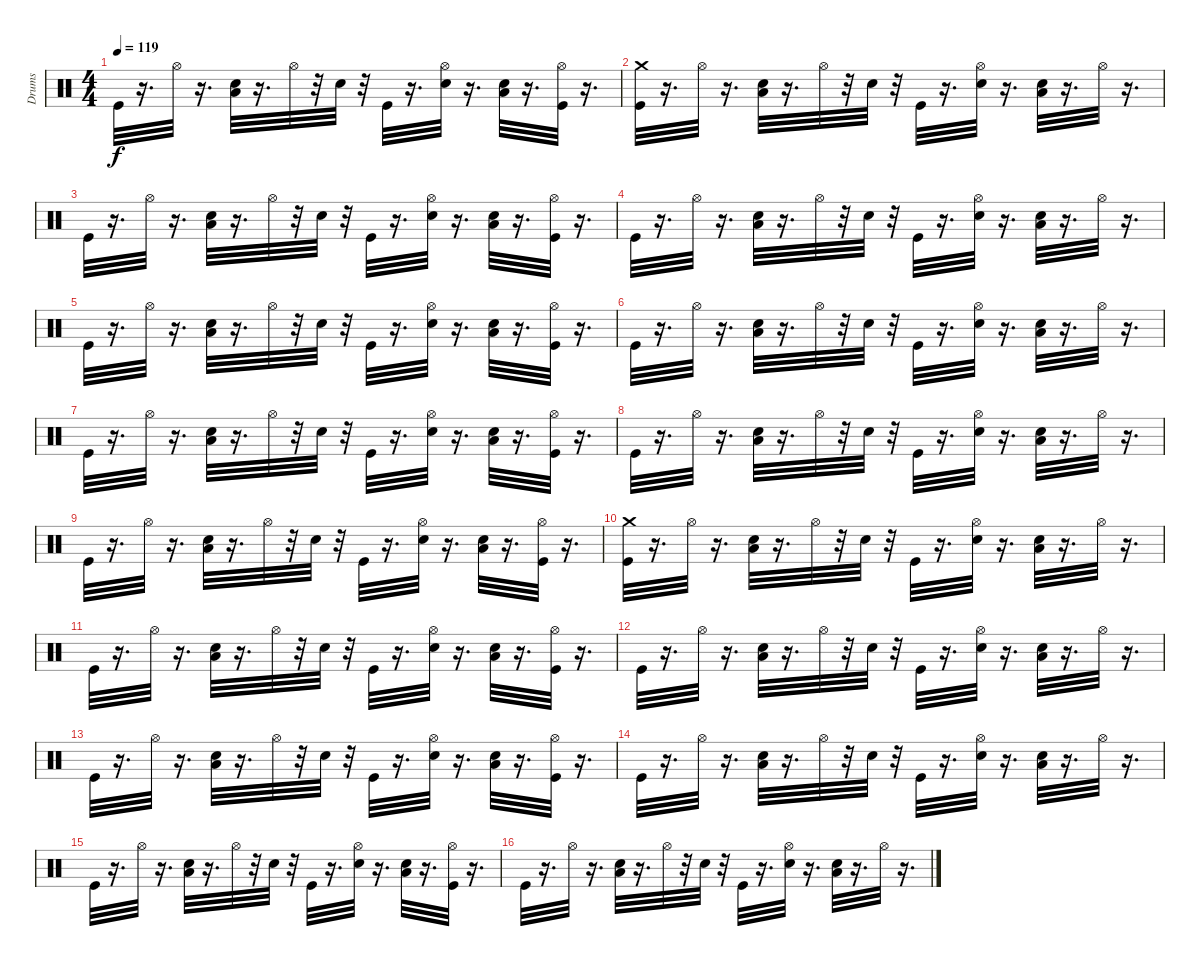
\track ("Drums" "Drums") {instrument percussion}
\staff {score}
\articulation defaults
\ts (4 4)
\tempo 119
\clef neutral
\ks c "Kick (hit)".32{dy f}
r.16{d} "Hi-Hat (open)".32 r.16{d} ("Low Floor Tom (hit)" "Hand Clap (hit)").32 r.16{d} "Hi-Hat (open)".32 r.32 "Hand Clap (hit)".32 r.32 "Kick (hit)".32 r.16{d} ("Hi-Hat (open)" "Hand Clap (hit)").32 r.16{d} ("Low Floor Tom (hit)" "Hand Clap (hit)").32 r.16{d} ("Kick (hit)" "Hi-Hat (open)").32 r.16{d} |
("Crash medium (hit)" "Kick (hit)").32 r.16{d} "Hi-Hat (open)".32 r.16{d} ("Low Floor Tom (hit)" "Hand Clap (hit)").32 r.16{d} "Hi-Hat (open)".32 r.32 "Hand Clap (hit)".32 r.32 "Kick (hit)".32 r.16{d} ("Hi-Hat (open)" "Hand Clap (hit)").32 r.16{d} ("Low Floor Tom (hit)" "Hand Clap (hit)").32 r.16{d} "Hi-Hat (open)".32 r.16{d} |
"Kick (hit)".32 r.16{d} "Hi-Hat (open)".32 r.16{d} ("Low Floor Tom (hit)" "Hand Clap (hit)").32 r.16{d} "Hi-Hat (open)".32 r.32 "Hand Clap (hit)".32 r.32 "Kick (hit)".32 r.16{d} ("Hi-Hat (open)" "Hand Clap (hit)").32 r.16{d} ("Low Floor Tom (hit)" "Hand Clap (hit)").32 r.16{d} ("Kick (hit)" "Hi-Hat (open)").32 r.16{d} |
"Kick (hit)".32 r.16{d} "Hi-Hat (open)".32 r.16{d} ("Low Floor Tom (hit)" "Hand Clap (hit)").32 r.16{d} "Hi-Hat (open)".32 r.32 "Hand Clap (hit)".32 r.32 "Kick (hit)".32 r.16{d} ("Hi-Hat (open)" "Hand Clap (hit)").32 r.16{d} ("Low Floor Tom (hit)" "Hand Clap (hit)").32 r.16{d} "Hi-Hat (open)".32 r.16{d} |
"Kick (hit)".32 r.16{d} "Hi-Hat (open)".32 r.16{d} ("Low Floor Tom (hit)" "Hand Clap (hit)").32 r.16{d} "Hi-Hat (open)".32 r.32 "Hand Clap (hit)".32 r.32 "Kick (hit)".32 r.16{d} ("Hi-Hat (open)" "Hand Clap (hit)").32 r.16{d} ("Low Floor Tom (hit)" "Hand Clap (hit)").32 r.16{d} ("Kick (hit)" "Hi-Hat (open)").32 r.16{d} |
"Kick (hit)".32 r.16{d} "Hi-Hat (open)".32 r.16{d} ("Low Floor Tom (hit)" "Hand Clap (hit)").32 r.16{d} "Hi-Hat (open)".32 r.32 "Hand Clap (hit)".32 r.32 "Kick (hit)".32 r.16{d} ("Hi-Hat (open)" "Hand Clap (hit)").32 r.16{d} ("Low Floor Tom (hit)" "Hand Clap (hit)").32 r.16{d} "Hi-Hat (open)".32 r.16{d} |
"Kick (hit)".32 r.16{d} "Hi-Hat (open)".32 r.16{d} ("Low Floor Tom (hit)" "Hand Clap (hit)").32 r.16{d} "Hi-Hat (open)".32 r.32 "Hand Clap (hit)".32 r.32 "Kick (hit)".32 r.16{d} ("Hi-Hat (open)" "Hand Clap (hit)").32 r.16{d} ("Low Floor Tom (hit)" "Hand Clap (hit)").32 r.16{d} ("Kick (hit)" "Hi-Hat (open)").32 r.16{d} |
"Kick (hit)".32 r.16{d} "Hi-Hat (open)".32 r.16{d} ("Low Floor Tom (hit)" "Hand Clap (hit)").32 r.16{d} "Hi-Hat (open)".32 r.32 "Hand Clap (hit)".32 r.32 "Kick (hit)".32 r.16{d} ("Hi-Hat (open)" "Hand Clap (hit)").32 r.16{d} ("Low Floor Tom (hit)" "Hand Clap (hit)").32 r.16{d} "Hi-Hat (open)".32 r.16{d} |
"Kick (hit)".32 r.16{d} "Hi-Hat (open)".32 r.16{d} ("Low Floor Tom (hit)" "Hand Clap (hit)").32 r.16{d} "Hi-Hat (open)".32 r.32 "Hand Clap (hit)".32 r.32 "Kick (hit)".32 r.16{d} ("Hi-Hat (open)" "Hand Clap (hit)").32 r.16{d} ("Low Floor Tom (hit)" "Hand Clap (hit)").32 r.16{d} ("Kick (hit)" "Hi-Hat (open)").32 r.16{d} |
("Crash medium (hit)" "Kick (hit)").32 r.16{d} "Hi-Hat (open)".32 r.16{d} ("Low Floor Tom (hit)" "Hand Clap (hit)").32 r.16{d} "Hi-Hat (open)".32 r.32 "Hand Clap (hit)".32 r.32 "Kick (hit)".32 r.16{d} ("Hi-Hat (open)" "Hand Clap (hit)").32 r.16{d} ("Low Floor Tom (hit)" "Hand Clap (hit)").32 r.16{d} "Hi-Hat (open)".32 r.16{d} |
"Kick (hit)".32 r.16{d} "Hi-Hat (open)".32 r.16{d} ("Low Floor Tom (hit)" "Hand Clap (hit)").32 r.16{d} "Hi-Hat (open)".32 r.32 "Hand Clap (hit)".32 r.32 "Kick (hit)".32 r.16{d} ("Hi-Hat (open)" "Hand Clap (hit)").32 r.16{d} ("Low Floor Tom (hit)" "Hand Clap (hit)").32 r.16{d} ("Kick (hit)" "Hi-Hat (open)").32 r.16{d} |
"Kick (hit)".32 r.16{d} "Hi-Hat (open)".32 r.16{d} ("Low Floor Tom (hit)" "Hand Clap (hit)").32 r.16{d} "Hi-Hat (open)".32 r.32 "Hand Clap (hit)".32 r.32 "Kick (hit)".32 r.16{d} ("Hi-Hat (open)" "Hand Clap (hit)").32 r.16{d} ("Low Floor Tom (hit)" "Hand Clap (hit)").32 r.16{d} "Hi-Hat (open)".32 r.16{d} |
"Kick (hit)".32 r.16{d} "Hi-Hat (open)".32 r.16{d} ("Low Floor Tom (hit)" "Hand Clap (hit)").32 r.16{d} "Hi-Hat (open)".32 r.32 "Hand Clap (hit)".32 r.32 "Kick (hit)".32 r.16{d} ("Hi-Hat (open)" "Hand Clap (hit)").32 r.16{d} ("Low Floor Tom (hit)" "Hand Clap (hit)").32 r.16{d} ("Kick (hit)" "Hi-Hat (open)").32 r.16{d} |
"Kick (hit)".32 r.16{d} "Hi-Hat (open)".32 r.16{d} ("Low Floor Tom (hit)" "Hand Clap (hit)").32 r.16{d} "Hi-Hat (open)".32 r.32 "Hand Clap (hit)".32 r.32 "Kick (hit)".32 r.16{d} ("Hi-Hat (open)" "Hand Clap (hit)").32 r.16{d} ("Low Floor Tom (hit)" "Hand Clap (hit)").32 r.16{d} "Hi-Hat (open)".32 r.16{d} |
"Kick (hit)".32 r.16{d} "Hi-Hat (open)".32 r.16{d} ("Low Floor Tom (hit)" "Hand Clap (hit)").32 r.16{d} "Hi-Hat (open)".32 r.32 "Hand Clap (hit)".32 r.32 "Kick (hit)".32 r.16{d} ("Hi-Hat (open)" "Hand Clap (hit)").32 r.16{d} ("Low Floor Tom (hit)" "Hand Clap (hit)").32 r.16{d} ("Kick (hit)" "Hi-Hat (open)").32 r.16{d} |
"Kick (hit)".32 r.16{d} "Hi-Hat (open)".32 r.16{d} ("Low Floor Tom (hit)" "Hand Clap (hit)").32 r.16{d} "Hi-Hat (open)".32 r.32 "Hand Clap (hit)".32 r.32 "Kick (hit)".32 r.16{d} ("Hi-Hat (open)" "Hand Clap (hit)").32 r.16{d} ("Low Floor Tom (hit)" "Hand Clap (hit)").32 r.16{d} "Hi-Hat (open)".32 r.16{d}
